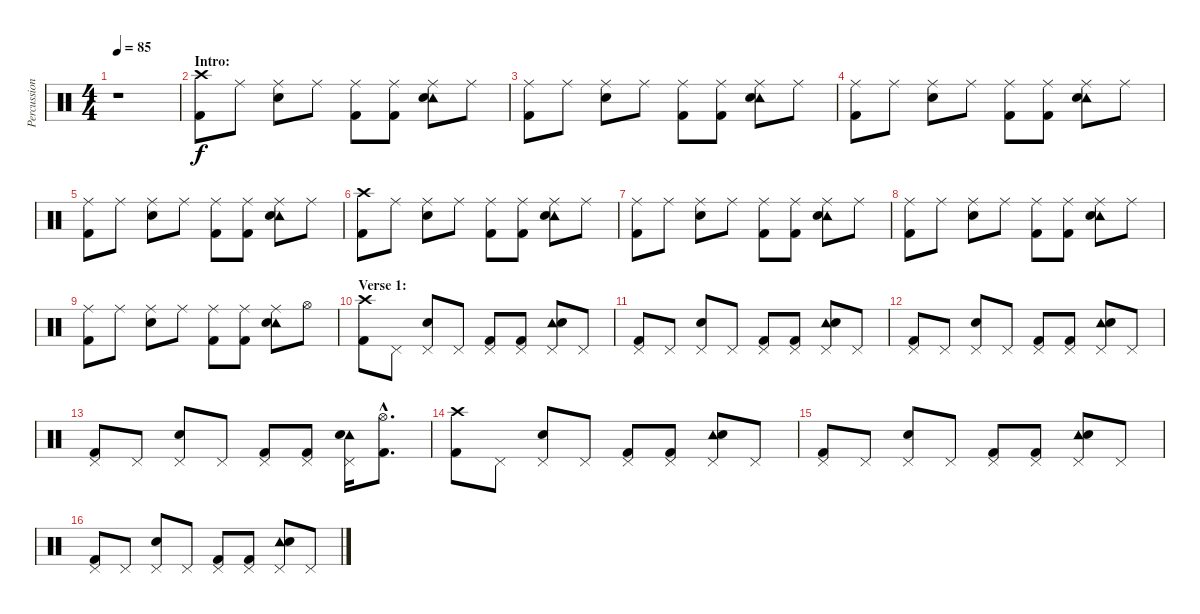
\track ("Percussion" "Percussion") {instrument percussion}
\staff {score}
\articulation defaults
\ts (4 4)
\tempo 85
\clef neutral
\ks c
r.1{dy f} |
\section ("" "Intro:")
("Crash high (hit)" "Kick (hit) 2").8 "Ride (middle)".8 ("Ride (middle)" "Electric Snare (hit)").8 "Ride (middle)".8 ("Ride (middle)" "Kick (hit) 2").8 ("Ride (middle)" "Kick (hit) 2").8 ("Ride (middle)" "Tambourine (hit)" "Electric Snare (hit)").8 "Ride (middle)".8 |
("Ride (middle)" "Kick (hit) 2").8 "Ride (middle)".8 ("Ride (middle)" "Electric Snare (hit)").8 "Ride (middle)".8 ("Ride (middle)" "Kick (hit) 2").8 ("Ride (middle)" "Kick (hit) 2").8 ("Ride (middle)" "Tambourine (hit)" "Electric Snare (hit)").8 "Ride (middle)".8 |
("Ride (middle)" "Kick (hit) 2").8 "Ride (middle)".8 ("Ride (middle)" "Electric Snare (hit)").8 "Ride (middle)".8 ("Ride (middle)" "Kick (hit) 2").8 ("Ride (middle)" "Kick (hit) 2").8 ("Ride (middle)" "Tambourine (hit)" "Electric Snare (hit)").8 "Ride (middle)".8 |
("Ride (middle)" "Kick (hit) 2").8 "Ride (middle)".8 ("Ride (middle)" "Electric Snare (hit)").8 "Ride (middle)".8 ("Ride (middle)" "Kick (hit) 2").8 ("Ride (middle)" "Kick (hit) 2").8 ("Ride (middle)" "Tambourine (hit)" "Electric Snare (hit)").8 "Ride (middle)".8 |
("Crash high (hit)" "Kick (hit) 2").8 "Ride (middle)".8 ("Ride (middle)" "Electric Snare (hit)").8 "Ride (middle)".8 ("Ride (middle)" "Kick (hit) 2").8 ("Ride (middle)" "Kick (hit) 2").8 ("Ride (middle)" "Tambourine (hit)" "Electric Snare (hit)").8 "Ride (middle)".8 |
("Ride (middle)" "Kick (hit) 2").8 "Ride (middle)".8 ("Ride (middle)" "Electric Snare (hit)").8 "Ride (middle)".8 ("Ride (middle)" "Kick (hit) 2").8 ("Ride (middle)" "Kick (hit) 2").8 ("Ride (middle)" "Tambourine (hit)" "Electric Snare (hit)").8 "Ride (middle)".8 |
("Ride (middle)" "Kick (hit) 2").8 "Ride (middle)".8 ("Ride (middle)" "Electric Snare (hit)").8 "Ride (middle)".8 ("Ride (middle)" "Kick (hit) 2").8 ("Ride (middle)" "Kick (hit) 2").8 ("Ride (middle)" "Tambourine (hit)" "Electric Snare (hit)").8 "Ride (middle)".8 |
("Ride (middle)" "Kick (hit) 2").8 "Ride (middle)".8 ("Ride (middle)" "Electric Snare (hit)").8 "Ride (middle)".8 ("Ride (middle)" "Kick (hit) 2").8 ("Ride (middle)" "Kick (hit) 2").8 ("Ride (middle)" "Tambourine (hit)" "Electric Snare (hit)").8 "Hi-Hat (open)".8 |
\section ("" "Verse 1:")
("Crash high (hit)" "Kick (hit) 2").8 "Pedal Hi-Hat (hit)".8 ("Pedal Hi-Hat (hit)" "Electric Snare (hit)").8 "Pedal Hi-Hat (hit)".8 ("Pedal Hi-Hat (hit)" "Kick (hit) 2").8 ("Pedal Hi-Hat (hit)" "Kick (hit) 2").8 ("Pedal Hi-Hat (hit)" "Tambourine (hit)" "Electric Snare (hit)").8 "Pedal Hi-Hat (hit)".8 |
("Pedal Hi-Hat (hit)" "Kick (hit) 2").8 "Pedal Hi-Hat (hit)".8 ("Pedal Hi-Hat (hit)" "Electric Snare (hit)").8 "Pedal Hi-Hat (hit)".8 ("Pedal Hi-Hat (hit)" "Kick (hit) 2").8 ("Pedal Hi-Hat (hit)" "Kick (hit) 2").8 ("Pedal Hi-Hat (hit)" "Tambourine (hit)" "Electric Snare (hit)").8 "Pedal Hi-Hat (hit)".8 |
("Pedal Hi-Hat (hit)" "Kick (hit) 2").8 "Pedal Hi-Hat (hit)".8 ("Pedal Hi-Hat (hit)" "Electric Snare (hit)").8 "Pedal Hi-Hat (hit)".8 ("Pedal Hi-Hat (hit)" "Kick (hit) 2").8 ("Pedal Hi-Hat (hit)" "Kick (hit) 2").8 ("Pedal Hi-Hat (hit)" "Tambourine (hit)" "Electric Snare (hit)").8 "Pedal Hi-Hat (hit)".8 |
("Pedal Hi-Hat (hit)" "Kick (hit) 2").8 "Pedal Hi-Hat (hit)".8 ("Pedal Hi-Hat (hit)" "Electric Snare (hit)").8 "Pedal Hi-Hat (hit)".8 ("Pedal Hi-Hat (hit)" "Kick (hit) 2").8 ("Pedal Hi-Hat (hit)" "Kick (hit) 2").8 ("Pedal Hi-Hat (hit)" "Tambourine (hit)" "Electric Snare (hit)").16 ("Hi-Hat (open)"{hac} "Kick (hit) 2"{hac}).8{d} |
("Crash high (hit)" "Kick (hit) 2").8 "Pedal Hi-Hat (hit)".8 ("Pedal Hi-Hat (hit)" "Electric Snare (hit)").8 "Pedal Hi-Hat (hit)".8 ("Pedal Hi-Hat (hit)" "Kick (hit) 2").8 ("Pedal Hi-Hat (hit)" "Kick (hit) 2").8 ("Pedal Hi-Hat (hit)" "Tambourine (hit)" "Electric Snare (hit)").8 "Pedal Hi-Hat (hit)".8 |
("Pedal Hi-Hat (hit)" "Kick (hit) 2").8 "Pedal Hi-Hat (hit)".8 ("Pedal Hi-Hat (hit)" "Electric Snare (hit)").8 "Pedal Hi-Hat (hit)".8 ("Pedal Hi-Hat (hit)" "Kick (hit) 2").8 ("Pedal Hi-Hat (hit)" "Kick (hit) 2").8 ("Pedal Hi-Hat (hit)" "Tambourine (hit)" "Electric Snare (hit)").8 "Pedal Hi-Hat (hit)".8 |
("Pedal Hi-Hat (hit)" "Kick (hit) 2").8 "Pedal Hi-Hat (hit)".8 ("Pedal Hi-Hat (hit)" "Electric Snare (hit)").8 "Pedal Hi-Hat (hit)".8 ("Pedal Hi-Hat (hit)" "Kick (hit) 2").8 ("Pedal Hi-Hat (hit)" "Kick (hit) 2").8 ("Pedal Hi-Hat (hit)" "Tambourine (hit)" "Electric Snare (hit)").8 "Pedal Hi-Hat (hit)".8
